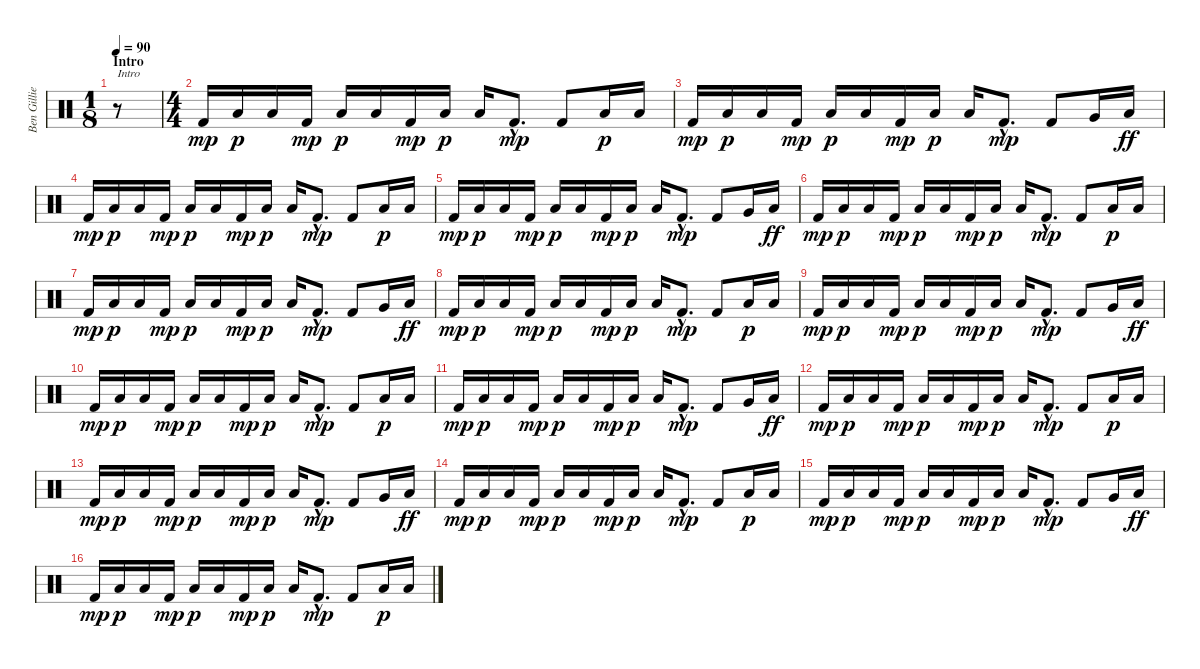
\track ("Ben Gillies" "Ben Gillie") {instrument percussion}
\staff {score}
\articulation defaults
\ts (1 8)
\section ("" "Intro")
\tempo 90
\clef neutral
\ks c
r.8{txt "Intro" dy mp} |
\ts (4 4)
"Kick (hit) 2".16 "Low Floor Tom (hit)".16{dy p} "Low Floor Tom (hit)".16 "Kick (hit) 2".16{dy mp} "Low Floor Tom (hit)".16{dy p} "Low Floor Tom (hit)".16 "Kick (hit) 2".16{dy mp} "Low Floor Tom (hit)".16{dy p} "Low Floor Tom (hit)".16 "Kick (hit) 2"{hac}.8{d dy mp} "Kick (hit) 2".8 "Low Floor Tom (hit)".16{dy p} "Low Floor Tom (hit)".16 |
"Kick (hit) 2".16{dy mp} "Low Floor Tom (hit)".16{dy p} "Low Floor Tom (hit)".16 "Kick (hit) 2".16{dy mp} "Low Floor Tom (hit)".16{dy p} "Low Floor Tom (hit)".16 "Kick (hit) 2".16{dy mp} "Low Floor Tom (hit)".16{dy p} "Low Floor Tom (hit)".16 "Kick (hit) 2"{hac}.8{d dy mp} "Kick (hit) 2".8 "Very Low Tom (hit)".16 "Low Floor Tom (hit)".16{dy ff} |
"Kick (hit) 2".16{dy mp} "Low Floor Tom (hit)".16{dy p} "Low Floor Tom (hit)".16 "Kick (hit) 2".16{dy mp} "Low Floor Tom (hit)".16{dy p} "Low Floor Tom (hit)".16 "Kick (hit) 2".16{dy mp} "Low Floor Tom (hit)".16{dy p} "Low Floor Tom (hit)".16 "Kick (hit) 2"{hac}.8{d dy mp} "Kick (hit) 2".8 "Low Floor Tom (hit)".16{dy p} "Low Floor Tom (hit)".16 |
"Kick (hit) 2".16{dy mp} "Low Floor Tom (hit)".16{dy p} "Low Floor Tom (hit)".16 "Kick (hit) 2".16{dy mp} "Low Floor Tom (hit)".16{dy p} "Low Floor Tom (hit)".16 "Kick (hit) 2".16{dy mp} "Low Floor Tom (hit)".16{dy p} "Low Floor Tom (hit)".16 "Kick (hit) 2"{hac}.8{d dy mp} "Kick (hit) 2".8 "Very Low Tom (hit)".16 "Low Floor Tom (hit)".16{dy ff} |
"Kick (hit) 2".16{dy mp} "Low Floor Tom (hit)".16{dy p} "Low Floor Tom (hit)".16 "Kick (hit) 2".16{dy mp} "Low Floor Tom (hit)".16{dy p} "Low Floor Tom (hit)".16 "Kick (hit) 2".16{dy mp} "Low Floor Tom (hit)".16{dy p} "Low Floor Tom (hit)".16 "Kick (hit) 2"{hac}.8{d dy mp} "Kick (hit) 2".8 "Low Floor Tom (hit)".16{dy p} "Low Floor Tom (hit)".16 |
"Kick (hit) 2".16{dy mp} "Low Floor Tom (hit)".16{dy p} "Low Floor Tom (hit)".16 "Kick (hit) 2".16{dy mp} "Low Floor Tom (hit)".16{dy p} "Low Floor Tom (hit)".16 "Kick (hit) 2".16{dy mp} "Low Floor Tom (hit)".16{dy p} "Low Floor Tom (hit)".16 "Kick (hit) 2"{hac}.8{d dy mp} "Kick (hit) 2".8 "Very Low Tom (hit)".16 "Low Floor Tom (hit)".16{dy ff} |
"Kick (hit) 2".16{dy mp} "Low Floor Tom (hit)".16{dy p} "Low Floor Tom (hit)".16 "Kick (hit) 2".16{dy mp} "Low Floor Tom (hit)".16{dy p} "Low Floor Tom (hit)".16 "Kick (hit) 2".16{dy mp} "Low Floor Tom (hit)".16{dy p} "Low Floor Tom (hit)".16 "Kick (hit) 2"{hac}.8{d dy mp} "Kick (hit) 2".8 "Low Floor Tom (hit)".16{dy p} "Low Floor Tom (hit)".16 |
"Kick (hit) 2".16{dy mp} "Low Floor Tom (hit)".16{dy p} "Low Floor Tom (hit)".16 "Kick (hit) 2".16{dy mp} "Low Floor Tom (hit)".16{dy p} "Low Floor Tom (hit)".16 "Kick (hit) 2".16{dy mp} "Low Floor Tom (hit)".16{dy p} "Low Floor Tom (hit)".16 "Kick (hit) 2"{hac}.8{d dy mp} "Kick (hit) 2".8 "Very Low Tom (hit)".16 "Low Floor Tom (hit)".16{dy ff} |
"Kick (hit) 2".16{dy mp} "Low Floor Tom (hit)".16{dy p} "Low Floor Tom (hit)".16 "Kick (hit) 2".16{dy mp} "Low Floor Tom (hit)".16{dy p} "Low Floor Tom (hit)".16 "Kick (hit) 2".16{dy mp} "Low Floor Tom (hit)".16{dy p} "Low Floor Tom (hit)".16 "Kick (hit) 2"{hac}.8{d dy mp} "Kick (hit) 2".8 "Low Floor Tom (hit)".16{dy p} "Low Floor Tom (hit)".16 |
"Kick (hit) 2".16{dy mp} "Low Floor Tom (hit)".16{dy p} "Low Floor Tom (hit)".16 "Kick (hit) 2".16{dy mp} "Low Floor Tom (hit)".16{dy p} "Low Floor Tom (hit)".16 "Kick (hit) 2".16{dy mp} "Low Floor Tom (hit)".16{dy p} "Low Floor Tom (hit)".16 "Kick (hit) 2"{hac}.8{d dy mp} "Kick (hit) 2".8 "Very Low Tom (hit)".16 "Low Floor Tom (hit)".16{dy ff} |
"Kick (hit) 2".16{dy mp} "Low Floor Tom (hit)".16{dy p} "Low Floor Tom (hit)".16 "Kick (hit) 2".16{dy mp} "Low Floor Tom (hit)".16{dy p} "Low Floor Tom (hit)".16 "Kick (hit) 2".16{dy mp} "Low Floor Tom (hit)".16{dy p} "Low Floor Tom (hit)".16 "Kick (hit) 2"{hac}.8{d dy mp} "Kick (hit) 2".8 "Low Floor Tom (hit)".16{dy p} "Low Floor Tom (hit)".16 |
"Kick (hit) 2".16{dy mp} "Low Floor Tom (hit)".16{dy p} "Low Floor Tom (hit)".16 "Kick (hit) 2".16{dy mp} "Low Floor Tom (hit)".16{dy p} "Low Floor Tom (hit)".16 "Kick (hit) 2".16{dy mp} "Low Floor Tom (hit)".16{dy p} "Low Floor Tom (hit)".16 "Kick (hit) 2"{hac}.8{d dy mp} "Kick (hit) 2".8 "Very Low Tom (hit)".16 "Low Floor Tom (hit)".16{dy ff} |
"Kick (hit) 2".16{dy mp} "Low Floor Tom (hit)".16{dy p} "Low Floor Tom (hit)".16 "Kick (hit) 2".16{dy mp} "Low Floor Tom (hit)".16{dy p} "Low Floor Tom (hit)".16 "Kick (hit) 2".16{dy mp} "Low Floor Tom (hit)".16{dy p} "Low Floor Tom (hit)".16 "Kick (hit) 2"{hac}.8{d dy mp} "Kick (hit) 2".8 "Low Floor Tom (hit)".16{dy p} "Low Floor Tom (hit)".16 |
"Kick (hit) 2".16{dy mp} "Low Floor Tom (hit)".16{dy p} "Low Floor Tom (hit)".16 "Kick (hit) 2".16{dy mp} "Low Floor Tom (hit)".16{dy p} "Low Floor Tom (hit)".16 "Kick (hit) 2".16{dy mp} "Low Floor Tom (hit)".16{dy p} "Low Floor Tom (hit)".16 "Kick (hit) 2"{hac}.8{d dy mp} "Kick (hit) 2".8 "Very Low Tom (hit)".16 "Low Floor Tom (hit)".16{dy ff} |
"Kick (hit) 2".16{dy mp} "Low Floor Tom (hit)".16{dy p} "Low Floor Tom (hit)".16 "Kick (hit) 2".16{dy mp} "Low Floor Tom (hit)".16{dy p} "Low Floor Tom (hit)".16 "Kick (hit) 2".16{dy mp} "Low Floor Tom (hit)".16{dy p} "Low Floor Tom (hit)".16 "Kick (hit) 2"{hac}.8{d dy mp} "Kick (hit) 2".8 "Low Floor Tom (hit)".16{dy p} "Low Floor Tom (hit)".16
